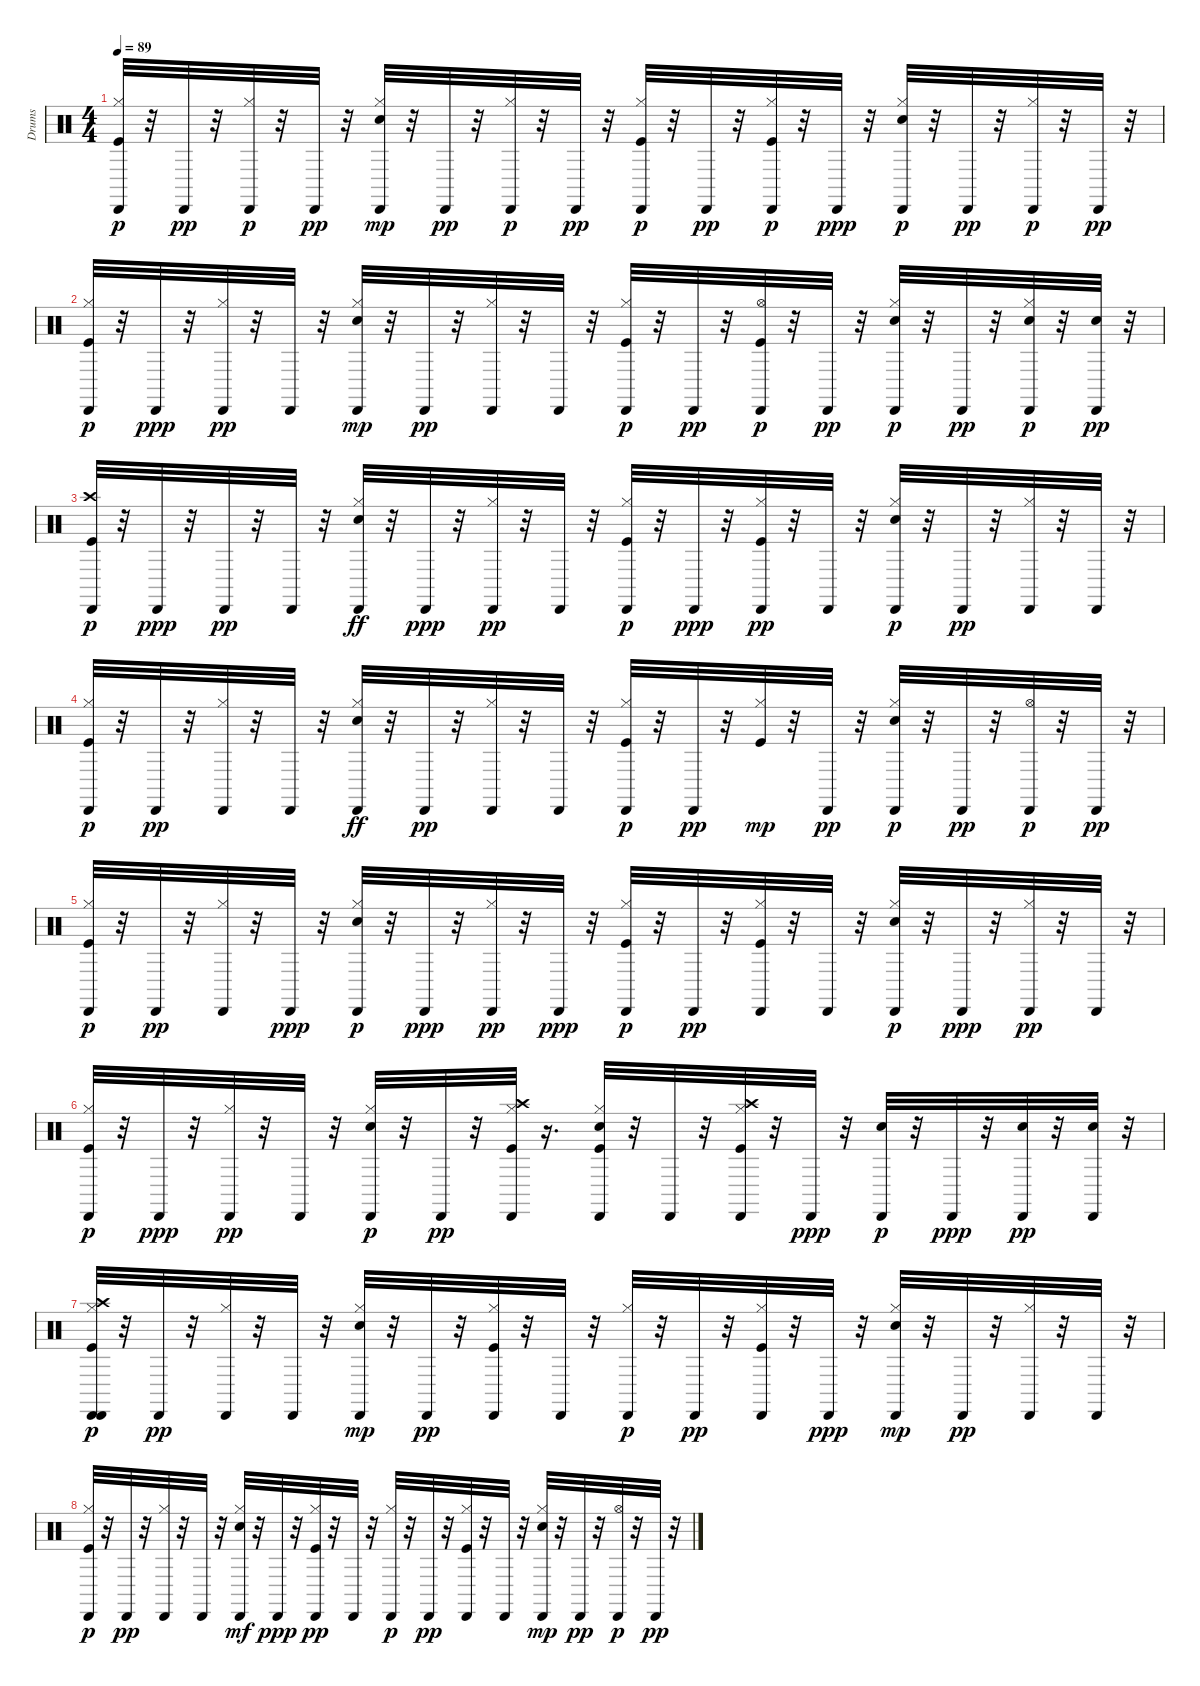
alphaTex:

\track ("Drums" "Drums") {instrument percussion}
\staff {score}
\articulation defaults
\ts (4 4)
\tempo 89
\clef neutral
\ks c
("Kick (hit)" "Hi-Hat (closed)" "Cabasa (hit)").32{dy p} r.32 "Cabasa (hit)".32{dy pp} r.32 ("Hi-Hat (closed)" "Cabasa (hit)").32{dy p} r.32 "Cabasa (hit)".32{dy pp} r.32 ("Electric Snare (hit)" "Hi-Hat (closed)" "Cabasa (hit)").32{dy mp} r.32 "Cabasa (hit)".32{dy pp} r.32 ("Hi-Hat (closed)" "Cabasa (hit)").32{dy p} r.32 "Cabasa (hit)".32{dy pp} r.32 ("Hi-Hat (closed)" "Kick (hit)" "Cabasa (hit)").32{dy p} r.32 "Cabasa (hit)".32{dy pp} r.32 ("Kick (hit)" "Hi-Hat (closed)" "Cabasa (hit)").32{dy p} r.32 "Cabasa (hit)".32{dy ppp} r.32 ("Electric Snare (hit)" "Hi-Hat (closed)" "Cabasa (hit)").32{dy p} r.32 "Cabasa (hit)".32{dy pp} r.32 ("Hi-Hat (closed)" "Cabasa (hit)").32{dy p} r.32 "Cabasa (hit)".32{dy pp} r.32 |
("Kick (hit)" "Hi-Hat (closed)" "Cabasa (hit)").32{dy p} r.32 "Cabasa (hit)".32{dy ppp} r.32 ("Hi-Hat (closed)" "Cabasa (hit)").32{dy pp} r.32 "Cabasa (hit)".32 r.32 ("Electric Snare (hit)" "Hi-Hat (closed)" "Cabasa (hit)").32{dy mp} r.32 "Cabasa (hit)".32{dy pp} r.32 ("Hi-Hat (closed)" "Cabasa (hit)").32 r.32 "Cabasa (hit)".32 r.32 ("Hi-Hat (closed)" "Kick (hit)" "Cabasa (hit)").32{dy p} r.32 "Cabasa (hit)".32{dy pp} r.32 ("Kick (hit)" "Hi-Hat (open)" "Cabasa (hit)").32{dy p} r.32 "Cabasa (hit)".32{dy pp} r.32 ("Electric Snare (hit)" "Hi-Hat (closed)" "Cabasa (hit)").32{dy p} r.32 "Cabasa (hit)".32{dy pp} r.32 ("Hi-Hat (closed)" "Electric Snare (hit)" "Cabasa (hit)").32{dy p} r.32 ("Electric Snare (hit)" "Cabasa (hit)").32{dy pp} r.32 |
("Crash high (hit)" "Kick (hit)" "Cabasa (hit)").32{dy p} r.32 "Cabasa (hit)".32{dy ppp} r.32 "Cabasa (hit)".32{dy pp} r.32 "Cabasa (hit)".32 r.32 ("Hi-Hat (closed)" "Cabasa (hit)" "Electric Snare (hit)").32{dy ff} r.32 "Cabasa (hit)".32{dy ppp} r.32 ("Hi-Hat (closed)" "Cabasa (hit)").32{dy pp} r.32 "Cabasa (hit)".32 r.32 ("Hi-Hat (closed)" "Cabasa (hit)" "Kick (hit)").32{dy p} r.32 "Cabasa (hit)".32{dy ppp} r.32 ("Kick (hit)" "Hi-Hat (closed)" "Cabasa (hit)").32{dy pp} r.32 "Cabasa (hit)".32 r.32 ("Hi-Hat (closed)" "Electric Snare (hit)" "Cabasa (hit)").32{dy p} r.32 "Cabasa (hit)".32{dy pp} r.32 ("Hi-Hat (closed)" "Cabasa (hit)").32 r.32 "Cabasa (hit)".32 r.32 |
("Hi-Hat (closed)" "Cabasa (hit)" "Kick (hit)").32{dy p} r.32 "Cabasa (hit)".32{dy pp} r.32 ("Hi-Hat (closed)" "Cabasa (hit)").32 r.32 "Cabasa (hit)".32 r.32 ("Hi-Hat (closed)" "Cabasa (hit)" "Electric Snare (hit)").32{dy ff} r.32 "Cabasa (hit)".32{dy pp} r.32 ("Hi-Hat (closed)" "Cabasa (hit)").32 r.32 "Cabasa (hit)".32 r.32 ("Kick (hit)" "Hi-Hat (closed)" "Cabasa (hit)").32{dy p} r.32 "Cabasa (hit)".32{dy pp} r.32 ("Kick (hit)" "Hi-Hat (closed)").32{dy mp} r.32 "Cabasa (hit)".32{dy pp} r.32 ("Electric Snare (hit)" "Hi-Hat (closed)" "Cabasa (hit)").32{dy p} r.32 "Cabasa (hit)".32{dy pp} r.32 ("Hi-Hat (open)" "Cabasa (hit)").32{dy p} r.32 "Cabasa (hit)".32{dy pp} r.32 |
("Kick (hit)" "Hi-Hat (closed)" "Cabasa (hit)").32{dy p} r.32 "Cabasa (hit)".32{dy pp} r.32 ("Hi-Hat (closed)" "Cabasa (hit)").32 r.32 "Cabasa (hit)".32{dy ppp} r.32 ("Hi-Hat (closed)" "Electric Snare (hit)" "Cabasa (hit)").32{dy p} r.32 "Cabasa (hit)".32{dy ppp} r.32 ("Hi-Hat (closed)" "Cabasa (hit)").32{dy pp} r.32 "Cabasa (hit)".32{dy ppp} r.32 ("Hi-Hat (closed)" "Kick (hit)" "Cabasa (hit)").32{dy p} r.32 "Cabasa (hit)".32{dy pp} r.32 ("Hi-Hat (closed)" "Kick (hit)" "Cabasa (hit)").32 r.32 "Cabasa (hit)".32 r.32 ("Hi-Hat (closed)" "Electric Snare (hit)" "Cabasa (hit)").32{dy p} r.32 "Cabasa (hit)".32{dy ppp} r.32 ("Hi-Hat (closed)" "Cabasa (hit)").32{dy pp} r.32 "Cabasa (hit)".32 r.32 |
("Kick (hit)" "Hi-Hat (closed)" "Cabasa (hit)").32{dy p} r.32 "Cabasa (hit)".32{dy ppp} r.32 ("Hi-Hat (closed)" "Cabasa (hit)").32{dy pp} r.32 "Cabasa (hit)".32 r.32 ("Electric Snare (hit)" "Hi-Hat (closed)" "Cabasa (hit)").32{dy p} r.32 "Cabasa (hit)".32{dy pp} r.32 ("Kick (hit)" "Crash high (hit)" "Hi-Hat (closed)" "Cabasa (hit)").32 r.16{d} ("Kick (hit)" "Hi-Hat (closed)" "Electric Snare (hit)" "Cabasa (hit)").32 r.32 "Cabasa (hit)".32 r.32 ("Kick (hit)" "Hi-Hat (closed)" "Crash high (hit)" "Cabasa (hit)").32 r.32 "Cabasa (hit)".32{dy ppp} r.32 ("Electric Snare (hit)" "Cabasa (hit)").32{dy p} r.32 "Cabasa (hit)".32{dy ppp} r.32 ("Electric Snare (hit)" "Cabasa (hit)").32{dy pp} r.32 ("Electric Snare (hit)" "Cabasa (hit)").32 r.32 |
("Cabasa (hit)" "Hi-Hat (closed)" "Kick (hit)" "Crash high (hit)" "Cabasa (hit)").32{dy p} r.32 "Cabasa (hit)".32{dy pp} r.32 ("Hi-Hat (closed)" "Cabasa (hit)").32 r.32 "Cabasa (hit)".32 r.32 ("Hi-Hat (closed)" "Electric Snare (hit)" "Cabasa (hit)").32{dy mp} r.32 "Cabasa (hit)".32{dy pp} r.32 ("Kick (hit)" "Hi-Hat (closed)" "Cabasa (hit)").32 r.32 "Cabasa (hit)".32 r.32 ("Hi-Hat (closed)" "Cabasa (hit)").32{dy p} r.32 "Cabasa (hit)".32{dy pp} r.32 ("Kick (hit)" "Hi-Hat (closed)" "Cabasa (hit)").32 r.32 "Cabasa (hit)".32{dy ppp} r.32 ("Electric Snare (hit)" "Hi-Hat (closed)" "Cabasa (hit)").32{dy mp} r.32 "Cabasa (hit)".32{dy pp} r.32 ("Hi-Hat (closed)" "Cabasa (hit)").32 r.32 "Cabasa (hit)".32 r.32 |
("Kick (hit)" "Hi-Hat (closed)" "Cabasa (hit)").32{dy p} r.32 "Cabasa (hit)".32{dy pp} r.32 ("Hi-Hat (closed)" "Cabasa (hit)").32 r.32 "Cabasa (hit)".32 r.32 ("Electric Snare (hit)" "Cabasa (hit)" "Hi-Hat (closed)").32{dy mf} r.32 "Cabasa (hit)".32{dy ppp} r.32 ("Hi-Hat (closed)" "Kick (hit)" "Cabasa (hit)").32{dy pp} r.32 "Cabasa (hit)".32 r.32 ("Hi-Hat (closed)" "Cabasa (hit)").32{dy p} r.32 "Cabasa (hit)".32{dy pp} r.32 ("Hi-Hat (closed)" "Kick (hit)" "Cabasa (hit)").32 r.32 "Cabasa (hit)".32 r.32 ("Electric Snare (hit)" "Hi-Hat (closed)" "Cabasa (hit)").32{dy mp} r.32 "Cabasa (hit)".32{dy pp} r.32 ("Hi-Hat (open)" "Cabasa (hit)").32{dy p} r.32 "Cabasa (hit)".32{dy pp} r.32
